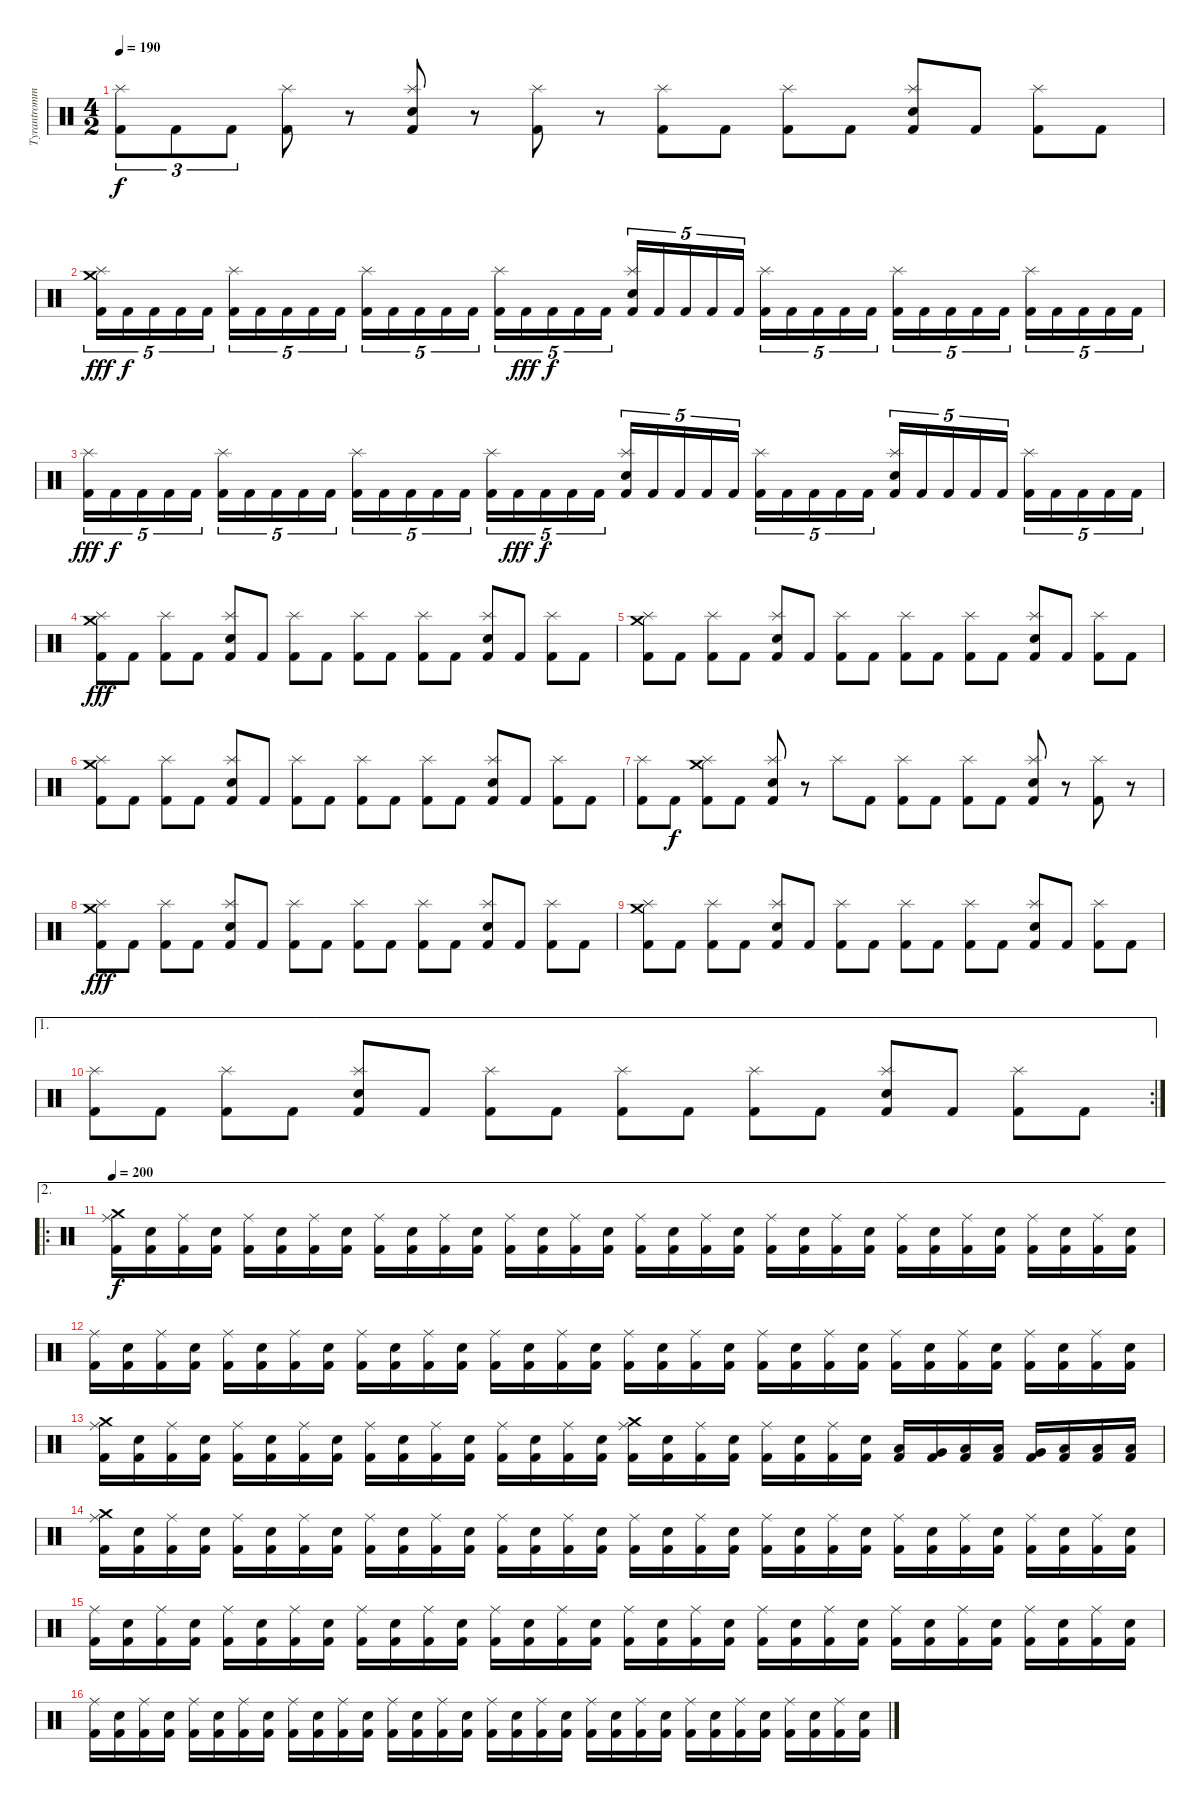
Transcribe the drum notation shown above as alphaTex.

\track ("Tyrantrommerslager" "Tyrantromm") {instrument percussion}
\staff {score}
\articulation defaults
\ts (4 2)
\tempo 190
\clef neutral
\ks c
("Kick (hit) 2" "Splash (hit)").8{tu (3 2) dy f} "Kick (hit) 2".8{tu (3 2)} "Kick (hit) 2".8{tu (3 2)} ("Kick (hit) 2" "Splash (hit)").8 r.8 ("Kick (hit) 2" "Electric Snare (hit)" "Splash (hit)").8 r.8 ("Kick (hit) 2" "Splash (hit)").8 r.8 ("Kick (hit) 2" "Splash (hit)").8 "Kick (hit) 2".8 ("Kick (hit) 2" "Splash (hit)").8 "Kick (hit) 2".8 ("Kick (hit) 2" "Electric Snare (hit)" "Splash (hit)").8 "Kick (hit) 2".8 ("Kick (hit) 2" "Splash (hit)").8 "Kick (hit) 2".8 |
("Kick (hit) 2" "Splash (hit)" "Crash medium (hit)").16{tu (5 4) dy fff} "Kick (hit) 2".16{tu (5 4) dy f} "Kick (hit) 2".16{tu (5 4)} "Kick (hit) 2".16{tu (5 4)} "Kick (hit) 2".16{tu (5 4)} ("Kick (hit) 2" "Splash (hit)").16{tu (5 4)} "Kick (hit) 2".16{tu (5 4)} "Kick (hit) 2".16{tu (5 4)} "Kick (hit) 2".16{tu (5 4)} "Kick (hit) 2".16{tu (5 4)} ("Kick (hit) 2" "Splash (hit)").16{tu (5 4)} "Kick (hit) 2".16{tu (5 4)} "Kick (hit) 2".16{tu (5 4)} "Kick (hit) 2".16{tu (5 4)} "Kick (hit) 2".16{tu (5 4)} ("Kick (hit) 2" "Splash (hit)").16{tu (5 4)} "Kick (hit) 2".16{tu (5 4) dy fff} "Kick (hit) 2".16{tu (5 4) dy f} "Kick (hit) 2".16{tu (5 4)} "Kick (hit) 2".16{tu (5 4)} ("Kick (hit) 2" "Electric Snare (hit)" "Splash (hit)").16{tu (5 4)} "Kick (hit) 2".16{tu (5 4)} "Kick (hit) 2".16{tu (5 4)} "Kick (hit) 2".16{tu (5 4)} "Kick (hit) 2".16{tu (5 4)} ("Kick (hit) 2" "Splash (hit)").16{tu (5 4)} "Kick (hit) 2".16{tu (5 4)} "Kick (hit) 2".16{tu (5 4)} "Kick (hit) 2".16{tu (5 4)} "Kick (hit) 2".16{tu (5 4)} ("Kick (hit) 2" "Splash (hit)").16{tu (5 4)} "Kick (hit) 2".16{tu (5 4)} "Kick (hit) 2".16{tu (5 4)} "Kick (hit) 2".16{tu (5 4)} "Kick (hit) 2".16{tu (5 4)} ("Kick (hit) 2" "Splash (hit)").16{tu (5 4)} "Kick (hit) 2".16{tu (5 4)} "Kick (hit) 2".16{tu (5 4)} "Kick (hit) 2".16{tu (5 4)} "Kick (hit) 2".16{tu (5 4)} |
("Kick (hit) 2" "Splash (hit)").16{tu (5 4) dy fff} "Kick (hit) 2".16{tu (5 4) dy f} "Kick (hit) 2".16{tu (5 4)} "Kick (hit) 2".16{tu (5 4)} "Kick (hit) 2".16{tu (5 4)} ("Kick (hit) 2" "Splash (hit)").16{tu (5 4)} "Kick (hit) 2".16{tu (5 4)} "Kick (hit) 2".16{tu (5 4)} "Kick (hit) 2".16{tu (5 4)} "Kick (hit) 2".16{tu (5 4)} ("Kick (hit) 2" "Splash (hit)").16{tu (5 4)} "Kick (hit) 2".16{tu (5 4)} "Kick (hit) 2".16{tu (5 4)} "Kick (hit) 2".16{tu (5 4)} "Kick (hit) 2".16{tu (5 4)} ("Kick (hit) 2" "Splash (hit)").16{tu (5 4)} "Kick (hit) 2".16{tu (5 4) dy fff} "Kick (hit) 2".16{tu (5 4) dy f} "Kick (hit) 2".16{tu (5 4)} "Kick (hit) 2".16{tu (5 4)} ("Kick (hit) 2" "Electric Snare (hit)" "Splash (hit)").16{tu (5 4)} "Kick (hit) 2".16{tu (5 4)} "Kick (hit) 2".16{tu (5 4)} "Kick (hit) 2".16{tu (5 4)} "Kick (hit) 2".16{tu (5 4)} ("Kick (hit) 2" "Splash (hit)").16{tu (5 4)} "Kick (hit) 2".16{tu (5 4)} "Kick (hit) 2".16{tu (5 4)} "Kick (hit) 2".16{tu (5 4)} "Kick (hit) 2".16{tu (5 4)} ("Kick (hit) 2" "Electric Snare (hit)" "Splash (hit)").16{tu (5 4)} "Kick (hit) 2".16{tu (5 4)} "Kick (hit) 2".16{tu (5 4)} "Kick (hit) 2".16{tu (5 4)} "Kick (hit) 2".16{tu (5 4)} ("Kick (hit) 2" "Splash (hit)").16{tu (5 4)} "Kick (hit) 2".16{tu (5 4)} "Kick (hit) 2".16{tu (5 4)} "Kick (hit) 2".16{tu (5 4)} "Kick (hit) 2".16{tu (5 4)} |
("Kick (hit) 2" "Splash (hit)" "Crash medium (hit)").8{dy fff} "Kick (hit) 2".8 ("Kick (hit) 2" "Splash (hit)").8 "Kick (hit) 2".8 ("Kick (hit) 2" "Electric Snare (hit)" "Splash (hit)").8 "Kick (hit) 2".8 ("Kick (hit) 2" "Splash (hit)").8 "Kick (hit) 2".8 ("Kick (hit) 2" "Splash (hit)").8 "Kick (hit) 2".8 ("Kick (hit) 2" "Splash (hit)").8 "Kick (hit) 2".8 ("Kick (hit) 2" "Electric Snare (hit)" "Splash (hit)").8 "Kick (hit) 2".8 ("Kick (hit) 2" "Splash (hit)").8 "Kick (hit) 2".8 |
("Kick (hit) 2" "Splash (hit)" "Crash medium (hit)").8 "Kick (hit) 2".8 ("Kick (hit) 2" "Splash (hit)").8 "Kick (hit) 2".8 ("Kick (hit) 2" "Electric Snare (hit)" "Splash (hit)").8 "Kick (hit) 2".8 ("Kick (hit) 2" "Splash (hit)").8 "Kick (hit) 2".8 ("Kick (hit) 2" "Splash (hit)").8 "Kick (hit) 2".8 ("Kick (hit) 2" "Splash (hit)").8 "Kick (hit) 2".8 ("Kick (hit) 2" "Electric Snare (hit)" "Splash (hit)").8 "Kick (hit) 2".8 ("Kick (hit) 2" "Splash (hit)").8 "Kick (hit) 2".8 |
("Kick (hit) 2" "Splash (hit)" "Crash medium (hit)").8 "Kick (hit) 2".8 ("Kick (hit) 2" "Splash (hit)").8 "Kick (hit) 2".8 ("Kick (hit) 2" "Electric Snare (hit)" "Splash (hit)").8 "Kick (hit) 2".8 ("Kick (hit) 2" "Splash (hit)").8 "Kick (hit) 2".8 ("Kick (hit) 2" "Splash (hit)").8 "Kick (hit) 2".8 ("Kick (hit) 2" "Splash (hit)").8 "Kick (hit) 2".8 ("Kick (hit) 2" "Electric Snare (hit)" "Splash (hit)").8 "Kick (hit) 2".8 ("Kick (hit) 2" "Splash (hit)").8 "Kick (hit) 2".8 |
("Kick (hit) 2" "Splash (hit)").8 "Kick (hit) 2".8{dy f} ("Kick (hit) 2" "Splash (hit)" "Crash medium (hit)").8 "Kick (hit) 2".8 ("Kick (hit) 2" "Electric Snare (hit)" "Splash (hit)").8 r.8 "Splash (hit)".8 "Kick (hit) 2".8 ("Kick (hit) 2" "Splash (hit)").8 "Kick (hit) 2".8 ("Kick (hit) 2" "Splash (hit)").8 "Kick (hit) 2".8 ("Kick (hit) 2" "Electric Snare (hit)" "Splash (hit)").8 r.8 ("Kick (hit) 2" "Splash (hit)").8 r.8 |
("Kick (hit) 2" "Splash (hit)" "Crash medium (hit)").8{dy fff} "Kick (hit) 2".8 ("Kick (hit) 2" "Splash (hit)").8 "Kick (hit) 2".8 ("Kick (hit) 2" "Electric Snare (hit)" "Splash (hit)").8 "Kick (hit) 2".8 ("Kick (hit) 2" "Splash (hit)").8 "Kick (hit) 2".8 ("Kick (hit) 2" "Splash (hit)").8 "Kick (hit) 2".8 ("Kick (hit) 2" "Splash (hit)").8 "Kick (hit) 2".8 ("Kick (hit) 2" "Electric Snare (hit)" "Splash (hit)").8 "Kick (hit) 2".8 ("Kick (hit) 2" "Splash (hit)").8 "Kick (hit) 2".8 |
("Kick (hit) 2" "Splash (hit)" "Crash medium (hit)").8 "Kick (hit) 2".8 ("Kick (hit) 2" "Splash (hit)").8 "Kick (hit) 2".8 ("Kick (hit) 2" "Electric Snare (hit)" "Splash (hit)").8 "Kick (hit) 2".8 ("Kick (hit) 2" "Splash (hit)").8 "Kick (hit) 2".8 ("Kick (hit) 2" "Splash (hit)").8 "Kick (hit) 2".8 ("Kick (hit) 2" "Splash (hit)").8 "Kick (hit) 2".8 ("Kick (hit) 2" "Electric Snare (hit)" "Splash (hit)").8 "Kick (hit) 2".8 ("Kick (hit) 2" "Splash (hit)").8 "Kick (hit) 2".8 |
\ae 1
\rc 2
("Kick (hit) 2" "Splash (hit)").8 "Kick (hit) 2".8 ("Kick (hit) 2" "Splash (hit)").8 "Kick (hit) 2".8 ("Kick (hit) 2" "Electric Snare (hit)" "Splash (hit)").8 "Kick (hit) 2".8 ("Kick (hit) 2" "Splash (hit)").8 "Kick (hit) 2".8 ("Kick (hit) 2" "Splash (hit)").8 "Kick (hit) 2".8 ("Kick (hit) 2" "Splash (hit)").8 "Kick (hit) 2".8 ("Kick (hit) 2" "Electric Snare (hit)" "Splash (hit)").8 "Kick (hit) 2".8 ("Kick (hit) 2" "Splash (hit)").8 "Kick (hit) 2".8 |
\ae 2
\ro
\tempo 200
("Kick (hit) 2" "Crash medium (hit)" "Ride (middle)").16{dy f} ("Kick (hit) 2" "Electric Snare (hit)").16 ("Kick (hit) 2" "Ride (middle)").16 ("Kick (hit) 2" "Electric Snare (hit)").16 ("Kick (hit) 2" "Ride (middle)").16 ("Kick (hit) 2" "Electric Snare (hit)").16 ("Kick (hit) 2" "Ride (middle)").16 ("Kick (hit) 2" "Electric Snare (hit)").16 ("Kick (hit) 2" "Ride (middle)").16 ("Kick (hit) 2" "Electric Snare (hit)").16 ("Kick (hit) 2" "Ride (middle)").16 ("Kick (hit) 2" "Electric Snare (hit)").16 ("Kick (hit) 2" "Ride (middle)").16 ("Kick (hit) 2" "Electric Snare (hit)").16 ("Kick (hit) 2" "Ride (middle)").16 ("Kick (hit) 2" "Electric Snare (hit)").16 ("Kick (hit) 2" "Ride (middle)").16 ("Kick (hit) 2" "Electric Snare (hit)").16 ("Kick (hit) 2" "Ride (middle)").16 ("Kick (hit) 2" "Electric Snare (hit)").16 ("Kick (hit) 2" "Ride (middle)").16 ("Kick (hit) 2" "Electric Snare (hit)").16 ("Kick (hit) 2" "Ride (middle)").16 ("Kick (hit) 2" "Electric Snare (hit)").16 ("Kick (hit) 2" "Ride (middle)").16 ("Kick (hit) 2" "Electric Snare (hit)").16 ("Kick (hit) 2" "Ride (middle)").16 ("Kick (hit) 2" "Electric Snare (hit)").16 ("Kick (hit) 2" "Ride (middle)").16 ("Kick (hit) 2" "Electric Snare (hit)").16 ("Kick (hit) 2" "Ride (middle)").16 ("Kick (hit) 2" "Electric Snare (hit)").16 |
("Kick (hit) 2" "Ride (middle)").16 ("Kick (hit) 2" "Electric Snare (hit)").16 ("Kick (hit) 2" "Ride (middle)").16 ("Kick (hit) 2" "Electric Snare (hit)").16 ("Kick (hit) 2" "Ride (middle)").16 ("Kick (hit) 2" "Electric Snare (hit)").16 ("Kick (hit) 2" "Ride (middle)").16 ("Kick (hit) 2" "Electric Snare (hit)").16 ("Kick (hit) 2" "Ride (middle)").16 ("Kick (hit) 2" "Electric Snare (hit)").16 ("Kick (hit) 2" "Ride (middle)").16 ("Kick (hit) 2" "Electric Snare (hit)").16 ("Kick (hit) 2" "Ride (middle)").16 ("Kick (hit) 2" "Electric Snare (hit)").16 ("Kick (hit) 2" "Ride (middle)").16 ("Kick (hit) 2" "Electric Snare (hit)").16 ("Kick (hit) 2" "Ride (middle)").16 ("Kick (hit) 2" "Electric Snare (hit)").16 ("Kick (hit) 2" "Ride (middle)").16 ("Kick (hit) 2" "Electric Snare (hit)").16 ("Kick (hit) 2" "Ride (middle)").16 ("Kick (hit) 2" "Electric Snare (hit)").16 ("Kick (hit) 2" "Ride (middle)").16 ("Kick (hit) 2" "Electric Snare (hit)").16 ("Kick (hit) 2" "Ride (middle)").16 ("Kick (hit) 2" "Electric Snare (hit)").16 ("Kick (hit) 2" "Ride (middle)").16 ("Kick (hit) 2" "Electric Snare (hit)").16 ("Kick (hit) 2" "Ride (middle)").16 ("Kick (hit) 2" "Electric Snare (hit)").16 ("Kick (hit) 2" "Ride (middle)").16 ("Kick (hit) 2" "Electric Snare (hit)").16 |
("Kick (hit) 2" "Crash medium (hit)" "Ride (middle)").16 ("Kick (hit) 2" "Electric Snare (hit)").16 ("Kick (hit) 2" "Ride (middle)").16 ("Kick (hit) 2" "Electric Snare (hit)").16 ("Kick (hit) 2" "Ride (middle)").16 ("Kick (hit) 2" "Electric Snare (hit)").16 ("Kick (hit) 2" "Ride (middle)").16 ("Kick (hit) 2" "Electric Snare (hit)").16 ("Kick (hit) 2" "Ride (middle)").16 ("Kick (hit) 2" "Electric Snare (hit)").16 ("Kick (hit) 2" "Ride (middle)").16 ("Kick (hit) 2" "Electric Snare (hit)").16 ("Kick (hit) 2" "Ride (middle)").16 ("Kick (hit) 2" "Electric Snare (hit)").16 ("Kick (hit) 2" "Ride (middle)").16 ("Kick (hit) 2" "Electric Snare (hit)").16 ("Kick (hit) 2" "Crash medium (hit)" "Ride (middle)").16 ("Kick (hit) 2" "Electric Snare (hit)").16 ("Kick (hit) 2" "Ride (middle)").16 ("Kick (hit) 2" "Electric Snare (hit)").16 ("Kick (hit) 2" "Ride (middle)").16 ("Kick (hit) 2" "Electric Snare (hit)").16 ("Kick (hit) 2" "Ride (middle)").16 ("Kick (hit) 2" "Electric Snare (hit)").16 ("Kick (hit) 2" "Low Tom (hit)").16 ("Kick (hit) 2" "Very Low Tom (hit)").16 ("Kick (hit) 2" "Low Tom (hit)").16 ("Kick (hit) 2" "Low Tom (hit)").16 ("Kick (hit) 2" "Very Low Tom (hit)").16 ("Kick (hit) 2" "Low Floor Tom (hit)").16 ("Kick (hit) 2" "Low Floor Tom (hit)").16 ("Kick (hit) 2" "Low Floor Tom (hit)").16 |
("Kick (hit) 2" "Crash medium (hit)" "Ride (middle)").16 ("Kick (hit) 2" "Electric Snare (hit)").16 ("Kick (hit) 2" "Ride (middle)").16 ("Kick (hit) 2" "Electric Snare (hit)").16 ("Kick (hit) 2" "Ride (middle)").16 ("Kick (hit) 2" "Electric Snare (hit)").16 ("Kick (hit) 2" "Ride (middle)").16 ("Kick (hit) 2" "Electric Snare (hit)").16 ("Kick (hit) 2" "Ride (middle)").16 ("Kick (hit) 2" "Electric Snare (hit)").16 ("Kick (hit) 2" "Ride (middle)").16 ("Kick (hit) 2" "Electric Snare (hit)").16 ("Kick (hit) 2" "Ride (middle)").16 ("Kick (hit) 2" "Electric Snare (hit)").16 ("Kick (hit) 2" "Ride (middle)").16 ("Kick (hit) 2" "Electric Snare (hit)").16 ("Kick (hit) 2" "Ride (middle)").16 ("Kick (hit) 2" "Electric Snare (hit)").16 ("Kick (hit) 2" "Ride (middle)").16 ("Kick (hit) 2" "Electric Snare (hit)").16 ("Kick (hit) 2" "Ride (middle)").16 ("Kick (hit) 2" "Electric Snare (hit)").16 ("Kick (hit) 2" "Ride (middle)").16 ("Kick (hit) 2" "Electric Snare (hit)").16 ("Kick (hit) 2" "Ride (middle)").16 ("Kick (hit) 2" "Electric Snare (hit)").16 ("Kick (hit) 2" "Ride (middle)").16 ("Kick (hit) 2" "Electric Snare (hit)").16 ("Kick (hit) 2" "Ride (middle)").16 ("Kick (hit) 2" "Electric Snare (hit)").16 ("Kick (hit) 2" "Ride (middle)").16 ("Kick (hit) 2" "Electric Snare (hit)").16 |
("Kick (hit) 2" "Ride (middle)").16 ("Kick (hit) 2" "Electric Snare (hit)").16 ("Kick (hit) 2" "Ride (middle)").16 ("Kick (hit) 2" "Electric Snare (hit)").16 ("Kick (hit) 2" "Ride (middle)").16 ("Kick (hit) 2" "Electric Snare (hit)").16 ("Kick (hit) 2" "Ride (middle)").16 ("Kick (hit) 2" "Electric Snare (hit)").16 ("Kick (hit) 2" "Ride (middle)").16 ("Kick (hit) 2" "Electric Snare (hit)").16 ("Kick (hit) 2" "Ride (middle)").16 ("Kick (hit) 2" "Electric Snare (hit)").16 ("Kick (hit) 2" "Ride (middle)").16 ("Kick (hit) 2" "Electric Snare (hit)").16 ("Kick (hit) 2" "Ride (middle)").16 ("Kick (hit) 2" "Electric Snare (hit)").16 ("Kick (hit) 2" "Ride (middle)").16 ("Kick (hit) 2" "Electric Snare (hit)").16 ("Kick (hit) 2" "Ride (middle)").16 ("Kick (hit) 2" "Electric Snare (hit)").16 ("Kick (hit) 2" "Ride (middle)").16 ("Kick (hit) 2" "Electric Snare (hit)").16 ("Kick (hit) 2" "Ride (middle)").16 ("Kick (hit) 2" "Electric Snare (hit)").16 ("Kick (hit) 2" "Ride (middle)").16 ("Kick (hit) 2" "Electric Snare (hit)").16 ("Kick (hit) 2" "Ride (middle)").16 ("Kick (hit) 2" "Electric Snare (hit)").16 ("Kick (hit) 2" "Ride (middle)").16 ("Kick (hit) 2" "Electric Snare (hit)").16 ("Kick (hit) 2" "Ride (middle)").16 ("Kick (hit) 2" "Electric Snare (hit)").16 |
("Kick (hit) 2" "Ride (middle)").16 ("Kick (hit) 2" "Electric Snare (hit)").16 ("Kick (hit) 2" "Ride (middle)").16 ("Kick (hit) 2" "Electric Snare (hit)").16 ("Kick (hit) 2" "Ride (middle)").16 ("Kick (hit) 2" "Electric Snare (hit)").16 ("Kick (hit) 2" "Ride (middle)").16 ("Kick (hit) 2" "Electric Snare (hit)").16 ("Kick (hit) 2" "Ride (middle)").16 ("Kick (hit) 2" "Electric Snare (hit)").16 ("Kick (hit) 2" "Ride (middle)").16 ("Kick (hit) 2" "Electric Snare (hit)").16 ("Kick (hit) 2" "Ride (middle)").16 ("Kick (hit) 2" "Electric Snare (hit)").16 ("Kick (hit) 2" "Ride (middle)").16 ("Kick (hit) 2" "Electric Snare (hit)").16 ("Kick (hit) 2" "Ride (middle)").16 ("Kick (hit) 2" "Electric Snare (hit)").16 ("Kick (hit) 2" "Ride (middle)").16 ("Kick (hit) 2" "Electric Snare (hit)").16 ("Kick (hit) 2" "Ride (middle)").16 ("Kick (hit) 2" "Electric Snare (hit)").16 ("Kick (hit) 2" "Ride (middle)").16 ("Kick (hit) 2" "Electric Snare (hit)").16 ("Kick (hit) 2" "Ride (middle)").16 ("Kick (hit) 2" "Electric Snare (hit)").16 ("Kick (hit) 2" "Ride (middle)").16 ("Kick (hit) 2" "Electric Snare (hit)").16 ("Kick (hit) 2" "Ride (middle)").16 ("Kick (hit) 2" "Electric Snare (hit)").16 ("Kick (hit) 2" "Ride (middle)").16 ("Kick (hit) 2" "Electric Snare (hit)").16
